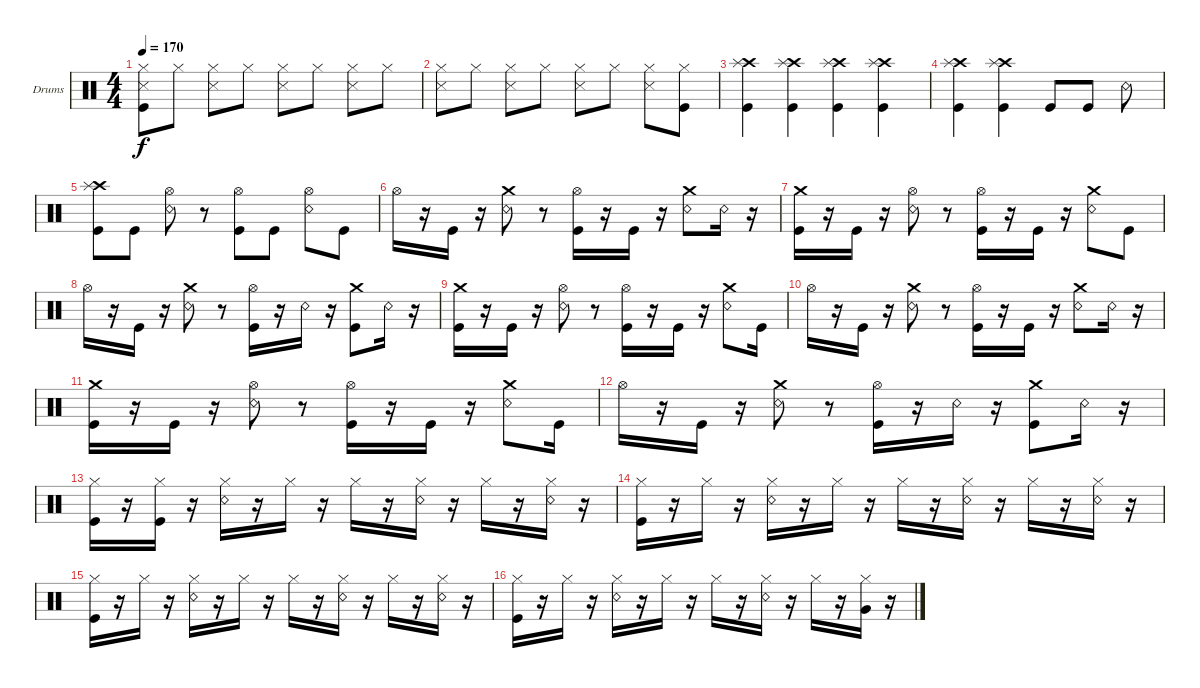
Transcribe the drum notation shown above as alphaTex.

\bracketExtendMode groupsimilarinstruments
\firstSystemTrackNameOrientation horizontal
\otherSystemsTrackNameOrientation horizontal
\track ("Drumkit" "Drums") {instrument percussion}
\staff {score}
\articulation defaults
\ts (4 4)
\tempo 170
\clef neutral
\ks c
("Snare (side stick) 3" "Hi-Hat (closed)" "Kick (hit)").8{dy f} "Hi-Hat (closed)".8 ("Hi-Hat (closed)" "Snare (side stick) 3").8 "Hi-Hat (closed)".8 ("Hi-Hat (closed)" "Snare (side stick) 3").8 "Hi-Hat (closed)".8 ("Hi-Hat (closed)" "Snare (side stick) 3").8 "Hi-Hat (closed)".8 |
("Snare (side stick) 3" "Hi-Hat (closed)").8 "Hi-Hat (closed)".8 ("Hi-Hat (closed)" "Snare (side stick) 3").8 "Hi-Hat (closed)".8 ("Hi-Hat (closed)" "Snare (side stick) 3").8 "Hi-Hat (closed)".8 ("Hi-Hat (closed)" "Snare (side stick) 3").8 ("Hi-Hat (closed)" "Kick (hit)").8 |
("Kick (hit)" "Crash high (hit)" "Splash (hit)").4 ("Kick (hit)" "Crash high (hit)" "Splash (hit)").4 ("Kick (hit)" "Crash high (hit)" "Splash (hit)").4 ("Kick (hit)" "Crash high (hit)" "Splash (hit)").4 |
("Kick (hit)" "Crash high (hit)" "Splash (hit)").4 ("Kick (hit)" "Crash high (hit)" "Splash (hit)").4 "Kick (hit)".8 "Kick (hit)".8 "Snare (rim shot)".8 |
("Kick (hit)" "Crash high (hit)" "Splash (hit)").8 "Kick (hit)".8 ("Snare (rim shot)" "Hi-Hat (open)").8 r.8 ("Hi-Hat (open)" "Kick (hit)").8 "Kick (hit)".8 ("Snare (rim shot)" "Hi-Hat (open)").8 "Kick (hit)".8 |
"Hi-Hat (open)".16 r.16 "Kick (hit)".16 r.16 ("Snare (rim shot)" "Crash medium (hit)").8 r.8 ("Kick (hit)" "Hi-Hat (open)").16 r.16 "Kick (hit)".16 r.16 ("Snare (rim shot)" "Crash medium (hit)").8 "Snare (rim shot)".16 r.16 |
("Kick (hit)" "Crash medium (hit)").16 r.16 "Kick (hit)".16 r.16 ("Snare (rim shot)" "Hi-Hat (open)").8 r.8 ("Kick (hit)" "Hi-Hat (open)").16 r.16 "Kick (hit)".16 r.16 ("Snare (rim shot)" "Crash medium (hit)").8 "Kick (hit)".8 |
"Hi-Hat (open)".16 r.16 "Kick (hit)".16 r.16 ("Snare (rim shot)" "Crash medium (hit)").8 r.8 ("Kick (hit)" "Hi-Hat (open)").16 r.16 "Snare (rim shot)".16 r.16 ("Crash medium (hit)" "Kick (hit)").8 "Snare (rim shot)".16 r.16 |
("Kick (hit)" "Crash medium (hit)").16 r.16 "Kick (hit)".16 r.16 ("Snare (rim shot)" "Hi-Hat (open)").8 r.8 ("Kick (hit)" "Hi-Hat (open)").16 r.16 "Kick (hit)".16 r.16 ("Snare (rim shot)" "Crash medium (hit)").8 "Kick (hit)".16 |
"Hi-Hat (open)".16 r.16 "Kick (hit)".16 r.16 ("Snare (rim shot)" "Crash medium (hit)").8 r.8 ("Kick (hit)" "Hi-Hat (open)").16 r.16 "Kick (hit)".16 r.16 ("Snare (rim shot)" "Crash medium (hit)").8 "Snare (rim shot)".16 r.16 |
("Kick (hit)" "Crash medium (hit)").16 r.16 "Kick (hit)".16 r.16 ("Snare (rim shot)" "Hi-Hat (open)").8 r.8 ("Kick (hit)" "Hi-Hat (open)").16 r.16 "Kick (hit)".16 r.16 ("Snare (rim shot)" "Crash medium (hit)").8 "Kick (hit)".16 |
"Hi-Hat (open)".16 r.16 "Kick (hit)".16 r.16 ("Snare (rim shot)" "Crash medium (hit)").8 r.8 ("Kick (hit)" "Hi-Hat (open)").16 r.16 "Snare (rim shot)".16 r.16 ("Crash medium (hit)" "Kick (hit)").8 "Snare (rim shot)".16 r.16 |
("Kick (hit)" "Hi-Hat (closed)").16 r.16 ("Hi-Hat (closed)" "Kick (hit)").16 r.16 ("Snare (rim shot)" "Hi-Hat (closed)").16 r.16 "Hi-Hat (closed)".16 r.16 "Hi-Hat (closed)".16 r.16 ("Snare (rim shot)" "Hi-Hat (closed)").16 r.16 "Hi-Hat (closed)".16 r.16 ("Hi-Hat (closed)" "Snare (rim shot)").16 r.16 |
("Kick (hit)" "Hi-Hat (closed)").16 r.16 "Hi-Hat (closed)".16 r.16 ("Snare (rim shot)" "Hi-Hat (closed)").16 r.16 "Hi-Hat (closed)".16 r.16 "Hi-Hat (closed)".16 r.16 ("Snare (rim shot)" "Hi-Hat (closed)").16 r.16 "Hi-Hat (closed)".16 r.16 ("Snare (rim shot)" "Hi-Hat (closed)").16 r.16 |
("Kick (hit)" "Hi-Hat (closed)").16 r.16 "Hi-Hat (closed)".16 r.16 ("Snare (rim shot)" "Hi-Hat (closed)").16 r.16 "Hi-Hat (closed)".16 r.16 "Hi-Hat (closed)".16 r.16 ("Snare (rim shot)" "Hi-Hat (closed)").16 r.16 "Hi-Hat (closed)".16 r.16 ("Snare (rim shot)" "Hi-Hat (closed)").16 r.16 |
("Kick (hit)" "Hi-Hat (closed)").16 r.16 "Hi-Hat (closed)".16 r.16 ("Snare (rim shot)" "Hi-Hat (closed)").16 r.16 "Hi-Hat (closed)".16 r.16 "Hi-Hat (closed)".16 r.16 ("Snare (rim shot)" "Hi-Hat (closed)").16 r.16 "Hi-Hat (closed)".16 r.16 ("Very Low Tom (hit)" "Hi-Hat (closed)").16 r.16
